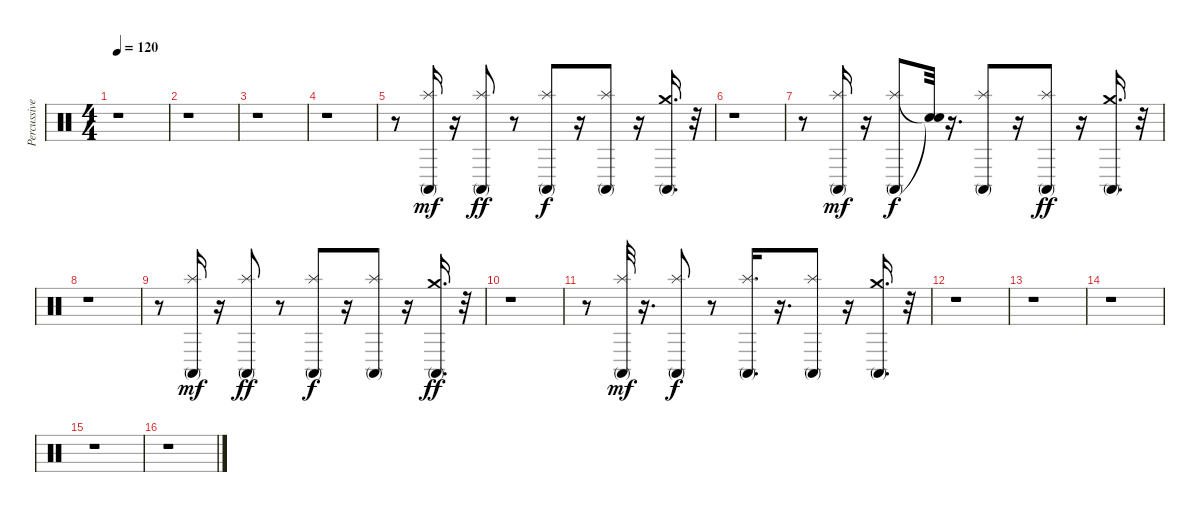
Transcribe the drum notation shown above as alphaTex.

\track ("Percussive Organ" "Percussive") {instrument percussion}
\staff {score}
\articulation defaults
\ts (4 4)
\tempo 120
\clef neutral
\ks c
r.1{dy ff} |
r.1 |
r.1 |
r.1 |
r.8 ("Conga high (mute)" "Splash (hit)").16{dy mf} r.16 ("Conga high (mute)" "Splash (hit)").8{dy ff} r.8 ("Conga high (mute)" "Splash (hit)").8{dy f} r.16 ("Splash (hit)" "Conga high (mute)").8 r.16 ("Crash medium (hit)" "Conga high (mute)").16{d} r.32 |
r.1 |
r.8 ("Conga high (mute)" "Splash (hit)").16{dy mf} r.16 ("Splash (hit)" "Conga high (mute)").8{dy f} ("Snare (hit)"{t} "Snare (hit)"{t}).32 r.16{d} ("Conga high (mute)" "Splash (hit)").8 r.16 ("Conga high (mute)" "Splash (hit)").8{dy ff} r.16 ("Conga high (mute)" "Crash medium (hit)").16{d} r.32 |
r.1 |
r.8 ("Conga high (mute)" "Splash (hit)").16{dy mf} r.16 ("Splash (hit)" "Conga high (mute)").8{dy ff} r.8 ("Conga high (mute)" "Splash (hit)").8{dy f} r.16 ("Splash (hit)" "Conga high (mute)").8 r.16 ("Conga high (mute)" "Crash medium (hit)").16{d dy ff} r.32 |
r.1 |
r.8 ("Conga high (mute)" "Splash (hit)").32{dy mf} r.16{d} ("Splash (hit)" "Conga high (mute)").8{dy f} r.8 ("Splash (hit)" "Conga high (mute)").16{d} r.16{d} ("Splash (hit)" "Conga high (mute)").8 r.16 ("Crash medium (hit)" "Conga high (mute)").16{d} r.32 |
r.1 |
r.1 |
r.1 |
r.1 |
r.1
